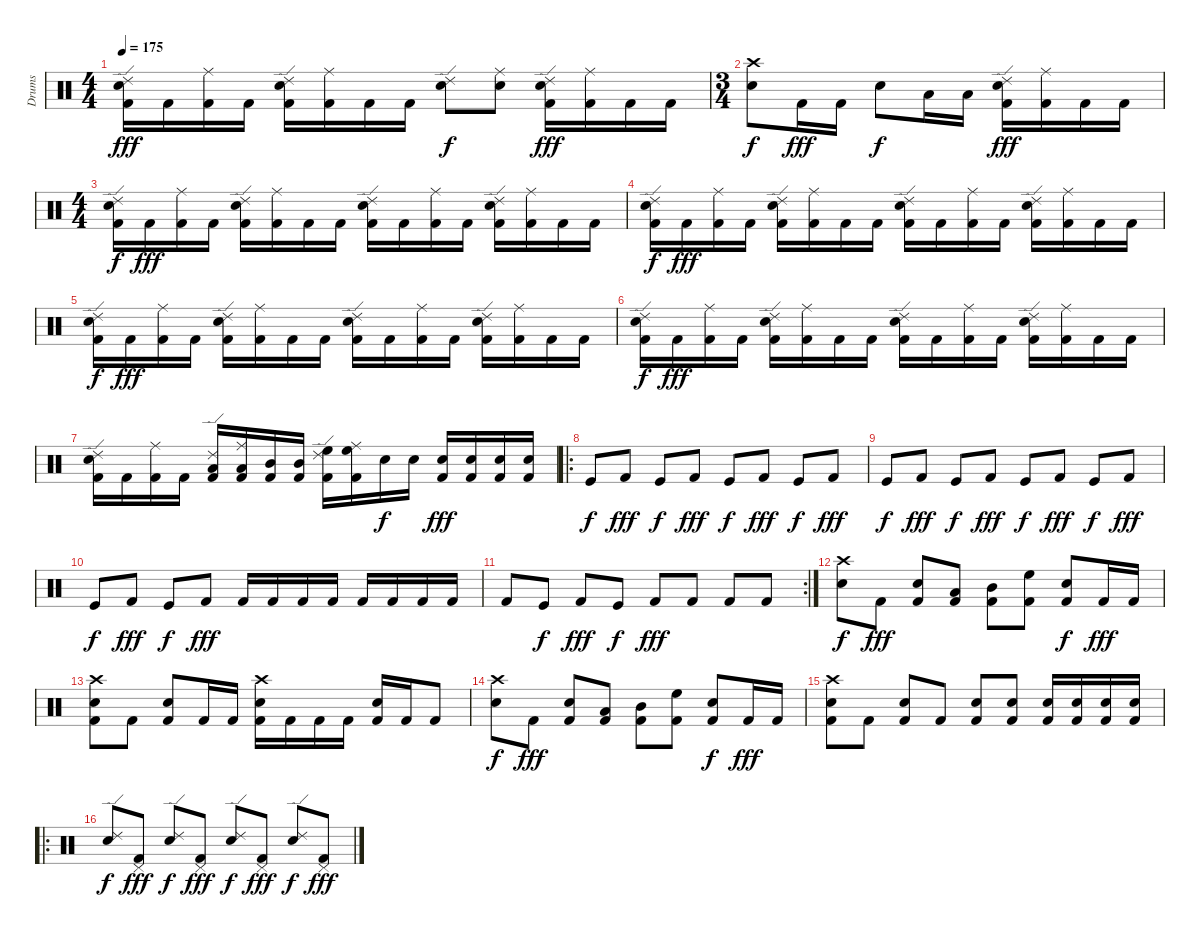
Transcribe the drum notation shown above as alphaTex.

\track ("Drums" "Drums") {instrument percussion}
\staff {score}
\articulation defaults
\ts (4 4)
\tempo 175
\clef neutral
\ks c
("Ride (edge) 2" "Electric Snare (hit)" "Kick (hit) 2").16{dy fff} "Kick (hit) 2".16 ("Ride (middle)" "Kick (hit) 2").16 "Kick (hit) 2".16 ("Ride (edge) 2" "Electric Snare (hit)" "Kick (hit) 2").16 ("Ride (middle)" "Kick (hit) 2").16 "Kick (hit) 2".16 "Kick (hit) 2".16 ("Ride (edge) 2" "Electric Snare (hit)").8{dy f} ("Ride (middle)" "Electric Snare (hit)").8 ("Ride (edge) 2" "Electric Snare (hit)" "Kick (hit) 2").16{dy fff} ("Ride (middle)" "Kick (hit) 2").16 "Kick (hit) 2".16 "Kick (hit) 2".16 |
\ts (3 4)
("Crash high (hit)" "Electric Snare (hit)").8{dy f} "Kick (hit) 2".16{dy fff} "Kick (hit) 2".16 "Electric Snare (hit)".8{dy f} "Low Tom (hit)".16 "Low Tom (hit)".16 ("Ride (edge) 2" "Electric Snare (hit)" "Kick (hit) 2").16{dy fff} ("Ride (middle)" "Kick (hit) 2").16 "Kick (hit) 2".16 "Kick (hit) 2".16 |
\ts (4 4)
("Ride (edge) 2" "Electric Snare (hit)" "Kick (hit) 2").16{dy f} "Kick (hit) 2".16{dy fff} ("Ride (middle)" "Kick (hit) 2").16 "Kick (hit) 2".16 ("Ride (edge) 2" "Electric Snare (hit)" "Kick (hit) 2").16 ("Ride (middle)" "Kick (hit) 2").16 "Kick (hit) 2".16 "Kick (hit) 2".16 ("Ride (edge) 2" "Electric Snare (hit)" "Kick (hit) 2").16 "Kick (hit) 2".16 ("Ride (middle)" "Kick (hit) 2").16 "Kick (hit) 2".16 ("Ride (edge) 2" "Electric Snare (hit)" "Kick (hit) 2").16 ("Ride (middle)" "Kick (hit) 2").16 "Kick (hit) 2".16 "Kick (hit) 2".16 |
("Ride (edge) 2" "Electric Snare (hit)" "Kick (hit) 2").16{dy f} "Kick (hit) 2".16{dy fff} ("Ride (middle)" "Kick (hit) 2").16 "Kick (hit) 2".16 ("Ride (edge) 2" "Electric Snare (hit)" "Kick (hit) 2").16 ("Ride (middle)" "Kick (hit) 2").16 "Kick (hit) 2".16 "Kick (hit) 2".16 ("Ride (edge) 2" "Electric Snare (hit)" "Kick (hit) 2").16 "Kick (hit) 2".16 ("Ride (middle)" "Kick (hit) 2").16 "Kick (hit) 2".16 ("Ride (edge) 2" "Electric Snare (hit)" "Kick (hit) 2").16 ("Ride (middle)" "Kick (hit) 2").16 "Kick (hit) 2".16 "Kick (hit) 2".16 |
("Ride (edge) 2" "Electric Snare (hit)" "Kick (hit) 2").16{dy f} "Kick (hit) 2".16{dy fff} ("Ride (middle)" "Kick (hit) 2").16 "Kick (hit) 2".16 ("Ride (edge) 2" "Electric Snare (hit)" "Kick (hit) 2").16 ("Ride (middle)" "Kick (hit) 2").16 "Kick (hit) 2".16 "Kick (hit) 2".16 ("Ride (edge) 2" "Electric Snare (hit)" "Kick (hit) 2").16 "Kick (hit) 2".16 ("Ride (middle)" "Kick (hit) 2").16 "Kick (hit) 2".16 ("Ride (edge) 2" "Electric Snare (hit)" "Kick (hit) 2").16 ("Ride (middle)" "Kick (hit) 2").16 "Kick (hit) 2".16 "Kick (hit) 2".16 |
("Ride (edge) 2" "Electric Snare (hit)" "Kick (hit) 2").16{dy f} "Kick (hit) 2".16{dy fff} ("Ride (middle)" "Kick (hit) 2").16 "Kick (hit) 2".16 ("Ride (edge) 2" "Electric Snare (hit)" "Kick (hit) 2").16 ("Ride (middle)" "Kick (hit) 2").16 "Kick (hit) 2".16 "Kick (hit) 2".16 ("Ride (edge) 2" "Electric Snare (hit)" "Kick (hit) 2").16 "Kick (hit) 2".16 ("Ride (middle)" "Kick (hit) 2").16 "Kick (hit) 2".16 ("Ride (edge) 2" "Electric Snare (hit)" "Kick (hit) 2").16 ("Ride (middle)" "Kick (hit) 2").16 "Kick (hit) 2".16 "Kick (hit) 2".16 |
("Ride (edge) 2" "Electric Snare (hit)" "Kick (hit) 2").16 "Kick (hit) 2".16 ("Ride (middle)" "Kick (hit) 2").16 "Kick (hit) 2".16 ("Ride (edge) 2" "Low Tom (hit)" "Kick (hit) 2").16 ("Ride (middle)" "Low Tom (hit)" "Kick (hit) 2").16 ("Mid Tom (hit)" "Kick (hit) 2").16 ("Mid Tom (hit)" "Kick (hit) 2").16 ("Ride (edge) 2" "High Floor Tom (hit)" "Kick (hit) 2").16 ("Ride (middle)" "High Floor Tom (hit)" "Kick (hit) 2").16 "Electric Snare (hit)".16{dy f} "Electric Snare (hit)".16 ("Electric Snare (hit)" "Kick (hit) 2").16{dy fff} ("Electric Snare (hit)" "Kick (hit) 2").16 ("Electric Snare (hit)" "Kick (hit) 2").16 ("Electric Snare (hit)" "Kick (hit) 2").16 |
\ro "Kick (hit)"{x}.8{dy f} "Kick (hit) 2".8{dy fff} "Kick (hit)"{x}.8{dy f} "Kick (hit) 2".8{dy fff} "Kick (hit)"{x}.8{dy f} "Kick (hit) 2".8{dy fff} "Kick (hit)"{x}.8{dy f} "Kick (hit) 2".8{dy fff}
|
"Kick (hit)"{x}.8{dy f} "Kick (hit) 2".8{dy fff} "Kick (hit)"{x}.8{dy f} "Kick (hit) 2".8{dy fff} "Kick (hit)"{x}.8{dy f} "Kick (hit) 2".8{dy fff} "Kick (hit)"{x}.8{dy f} "Kick (hit) 2".8{dy fff} |
"Kick (hit)"{x}.8{dy f} "Kick (hit) 2".8{dy fff} "Kick (hit)"{x}.8{dy f} "Kick (hit) 2".8{dy fff} "Kick (hit) 2".16 "Kick (hit) 2".16 "Kick (hit) 2".16 "Kick (hit) 2".16 "Kick (hit) 2".16 "Kick (hit) 2".16 "Kick (hit) 2".16 "Kick (hit) 2".16 |
\rc 2 "Kick (hit) 2".8 "Kick (hit)"{x}.8{dy f} "Kick (hit) 2".8{dy fff} "Kick (hit)"{x}.8{dy f} "Kick (hit) 2".8{dy fff} "Kick (hit) 2".8 "Kick (hit) 2".8 "Kick (hit) 2".8
|
("Crash high (hit)" "Electric Snare (hit)").8{dy f} "Kick (hit) 2".8{dy fff} ("Electric Snare (hit)" "Kick (hit) 2").8 ("Low Tom (hit)" "Kick (hit) 2").8 ("Mid Tom (hit)" "Kick (hit) 2").8 ("High Floor Tom (hit)" "Kick (hit) 2").8 ("Electric Snare (hit)" "Kick (hit) 2").8{dy f} "Kick (hit) 2".16{dy fff} "Kick (hit) 2".16 |
("Crash high (hit)" "Electric Snare (hit)" "Kick (hit) 2").8 "Kick (hit) 2".8 ("Electric Snare (hit)" "Kick (hit) 2").8 "Kick (hit) 2".16 "Kick (hit) 2".16 ("Crash high (hit)" "Electric Snare (hit)" "Kick (hit) 2").16 "Kick (hit) 2".16 "Kick (hit) 2".16 "Kick (hit) 2".16 ("Electric Snare (hit)" "Kick (hit) 2").16 "Kick (hit) 2".16 "Kick (hit) 2".8 |
("Crash high (hit)" "Electric Snare (hit)").8{dy f} "Kick (hit) 2".8{dy fff} ("Electric Snare (hit)" "Kick (hit) 2").8 ("Low Tom (hit)" "Kick (hit) 2").8 ("Mid Tom (hit)" "Kick (hit) 2").8 ("High Floor Tom (hit)" "Kick (hit) 2").8 ("Electric Snare (hit)" "Kick (hit) 2").8{dy f} "Kick (hit) 2".16{dy fff} "Kick (hit) 2".16 |
("Crash high (hit)" "Electric Snare (hit)" "Kick (hit) 2").8 "Kick (hit) 2".8 ("Electric Snare (hit)" "Kick (hit) 2").8 "Kick (hit) 2".8 ("Electric Snare (hit)" "Kick (hit) 2").8 ("Electric Snare (hit)" "Kick (hit) 2").8 ("Electric Snare (hit)" "Kick (hit) 2").16 ("Electric Snare (hit)" "Kick (hit) 2").16 ("Electric Snare (hit)" "Kick (hit) 2").16 ("Electric Snare (hit)" "Kick (hit) 2").16 |
\ro
("Ride (edge) 2" "Electric Snare (hit)").8{dy f} ("Pedal Hi-Hat (hit)" "Kick (hit) 2").8{dy fff} ("Ride (edge) 2" "Electric Snare (hit)").8{dy f} ("Pedal Hi-Hat (hit)" "Kick (hit) 2").8{dy fff} ("Ride (edge) 2" "Electric Snare (hit)").8{dy f} ("Pedal Hi-Hat (hit)" "Kick (hit) 2").8{dy fff} ("Ride (edge) 2" "Electric Snare (hit)").8{dy f} ("Pedal Hi-Hat (hit)" "Kick (hit) 2").8{dy fff}
